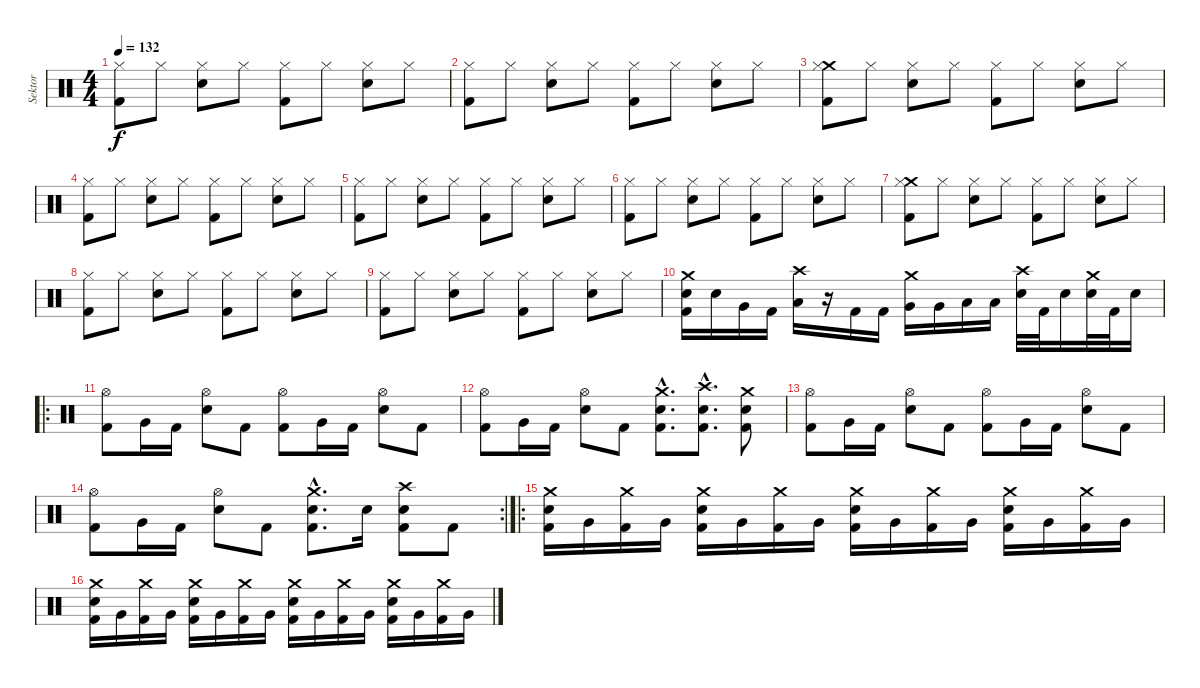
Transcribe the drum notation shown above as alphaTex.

\track ("Sektor" "Sektor") {instrument percussion}
\staff {score}
\articulation defaults
\ts (4 4)
\tempo 132
\clef neutral
\ks c
("Hi-Hat (closed)" "Kick (hit) 2").8{dy f} "Hi-Hat (closed)".8 ("Hi-Hat (closed)" "Snare (hit) 2").8 "Hi-Hat (closed)".8 ("Hi-Hat (closed)" "Kick (hit) 2").8 "Hi-Hat (closed)".8 ("Hi-Hat (closed)" "Snare (hit) 2").8 "Hi-Hat (closed)".8 |
("Hi-Hat (closed)" "Kick (hit) 2").8 "Hi-Hat (closed)".8 ("Hi-Hat (closed)" "Snare (hit) 2").8 "Hi-Hat (closed)".8 ("Hi-Hat (closed)" "Kick (hit) 2").8 "Hi-Hat (closed)".8 ("Hi-Hat (closed)" "Snare (hit) 2").8 "Hi-Hat (closed)".8 |
("Crash medium (hit)" "Hi-Hat (closed)" "Kick (hit) 2").8 "Hi-Hat (closed)".8 ("Hi-Hat (closed)" "Snare (hit) 2").8 "Hi-Hat (closed)".8 ("Hi-Hat (closed)" "Kick (hit) 2").8 "Hi-Hat (closed)".8 ("Hi-Hat (closed)" "Snare (hit) 2").8 "Hi-Hat (closed)".8 |
("Hi-Hat (closed)" "Kick (hit) 2").8 "Hi-Hat (closed)".8 ("Hi-Hat (closed)" "Snare (hit) 2").8 "Hi-Hat (closed)".8 ("Hi-Hat (closed)" "Kick (hit) 2").8 "Hi-Hat (closed)".8 ("Hi-Hat (closed)" "Snare (hit) 2").8 "Hi-Hat (closed)".8 |
("Hi-Hat (closed)" "Kick (hit) 2").8 "Hi-Hat (closed)".8 ("Hi-Hat (closed)" "Snare (hit) 2").8 "Hi-Hat (closed)".8 ("Hi-Hat (closed)" "Kick (hit) 2").8 "Hi-Hat (closed)".8 ("Hi-Hat (closed)" "Snare (hit) 2").8 "Hi-Hat (closed)".8 |
("Hi-Hat (closed)" "Kick (hit) 2").8 "Hi-Hat (closed)".8 ("Hi-Hat (closed)" "Snare (hit) 2").8 "Hi-Hat (closed)".8 ("Hi-Hat (closed)" "Kick (hit) 2").8 "Hi-Hat (closed)".8 ("Hi-Hat (closed)" "Snare (hit) 2").8 "Hi-Hat (closed)".8 |
("Crash medium (hit)" "Hi-Hat (closed)" "Kick (hit) 2").8 "Hi-Hat (closed)".8 ("Hi-Hat (closed)" "Snare (hit) 2").8 "Hi-Hat (closed)".8 ("Hi-Hat (closed)" "Kick (hit) 2").8 "Hi-Hat (closed)".8 ("Hi-Hat (closed)" "Snare (hit) 2").8 "Hi-Hat (closed)".8 |
("Hi-Hat (closed)" "Kick (hit) 2").8 "Hi-Hat (closed)".8 ("Hi-Hat (closed)" "Snare (hit) 2").8 "Hi-Hat (closed)".8 ("Hi-Hat (closed)" "Kick (hit) 2").8 "Hi-Hat (closed)".8 ("Hi-Hat (closed)" "Snare (hit) 2").8 "Hi-Hat (closed)".8 |
("Hi-Hat (closed)" "Kick (hit) 2").8 "Hi-Hat (closed)".8 ("Hi-Hat (closed)" "Snare (hit) 2").8 "Hi-Hat (closed)".8 ("Hi-Hat (closed)" "Kick (hit) 2").8 "Hi-Hat (closed)".8 ("Hi-Hat (closed)" "Snare (hit) 2").8 "Hi-Hat (closed)".8 |
("Crash medium (hit)" "Snare (hit) 2" "Kick (hit) 2").16 "Snare (hit) 2".16 "Very Low Tom (hit)".16 "Kick (hit) 2".16 ("Crash high (hit)" "Low Floor Tom (hit)").16 r.16 "Kick (hit) 2".16 "Kick (hit) 2".16 ("Crash medium (hit)" "Very Low Tom (hit)").16 "Very Low Tom (hit)".16 "Low Floor Tom (hit)".16 "Low Floor Tom (hit)".16 ("Crash high (hit)" "Snare (hit) 2").32 "Kick (hit) 2".32 "Snare (hit) 2".16 ("Crash medium (hit)" "Snare (hit) 2").32 "Kick (hit) 2".32 "Snare (hit) 2".16 |
\ro
("Hi-Hat (open)" "Kick (hit) 2").8 "Very Low Tom (hit)".16 "Kick (hit) 2".16 ("Hi-Hat (open)" "Snare (hit) 2").8 "Kick (hit) 2".8 ("Hi-Hat (open)" "Kick (hit) 2").8 "Very Low Tom (hit)".16 "Kick (hit) 2".16 ("Hi-Hat (open)" "Snare (hit) 2").8 "Kick (hit) 2".8 |
("Hi-Hat (open)" "Kick (hit) 2").8 "Very Low Tom (hit)".16 "Kick (hit) 2".16 ("Hi-Hat (open)" "Snare (hit) 2").8 "Kick (hit) 2".8 ("Crash medium (hit)"{hac} "Snare (hit) 2"{hac} "Kick (hit) 2"{hac}).8{d} ("Crash high (hit)"{hac} "Snare (hit) 2"{hac} "Kick (hit) 2"{hac}).8{d} ("Crash medium (hit)" "Snare (hit) 2" "Kick (hit) 2").8 |
("Hi-Hat (open)" "Kick (hit) 2").8 "Very Low Tom (hit)".16 "Kick (hit) 2".16 ("Hi-Hat (open)" "Snare (hit) 2").8 "Kick (hit) 2".8 ("Hi-Hat (open)" "Kick (hit) 2").8 "Very Low Tom (hit)".16 "Kick (hit) 2".16 ("Hi-Hat (open)" "Snare (hit) 2").8 "Kick (hit) 2".8 |
\rc 2
("Hi-Hat (open)" "Kick (hit) 2").8 "Very Low Tom (hit)".16 "Kick (hit) 2".16 ("Hi-Hat (open)" "Snare (hit) 2").8 "Kick (hit) 2".8 ("Crash medium (hit)"{hac} "Snare (hit) 2"{hac} "Kick (hit) 2"{hac}).8{d} "Snare (hit) 2".16 ("Crash high (hit)" "Snare (hit) 2" "Kick (hit) 2").8 "Kick (hit) 2".8 |
\ro
("Crash medium (hit)" "Snare (hit) 2" "Kick (hit) 2").16 "Very Low Tom (hit)".16 ("Crash medium (hit)" "Kick (hit) 2").16 "Very Low Tom (hit)".16 ("Crash medium (hit)" "Snare (hit) 2" "Kick (hit) 2").16 "Very Low Tom (hit)".16 ("Crash medium (hit)" "Kick (hit) 2").16 "Very Low Tom (hit)".16 ("Crash medium (hit)" "Snare (hit) 2" "Kick (hit) 2").16 "Very Low Tom (hit)".16 ("Crash medium (hit)" "Kick (hit) 2").16 "Very Low Tom (hit)".16 ("Crash medium (hit)" "Snare (hit) 2" "Kick (hit) 2").16 "Very Low Tom (hit)".16 ("Crash medium (hit)" "Kick (hit) 2").16 "Very Low Tom (hit)".16 |
("Crash medium (hit)" "Snare (hit) 2" "Kick (hit) 2").16 "Very Low Tom (hit)".16 ("Crash medium (hit)" "Kick (hit) 2").16 "Very Low Tom (hit)".16 ("Crash medium (hit)" "Snare (hit) 2" "Kick (hit) 2").16 "Very Low Tom (hit)".16 ("Crash medium (hit)" "Kick (hit) 2").16 "Very Low Tom (hit)".16 ("Crash medium (hit)" "Snare (hit) 2" "Kick (hit) 2").16 "Very Low Tom (hit)".16 ("Crash medium (hit)" "Kick (hit) 2").16 "Very Low Tom (hit)".16 ("Crash medium (hit)" "Snare (hit) 2" "Kick (hit) 2").16 "Very Low Tom (hit)".16 ("Crash medium (hit)" "Kick (hit) 2").16 "Very Low Tom (hit)".16
